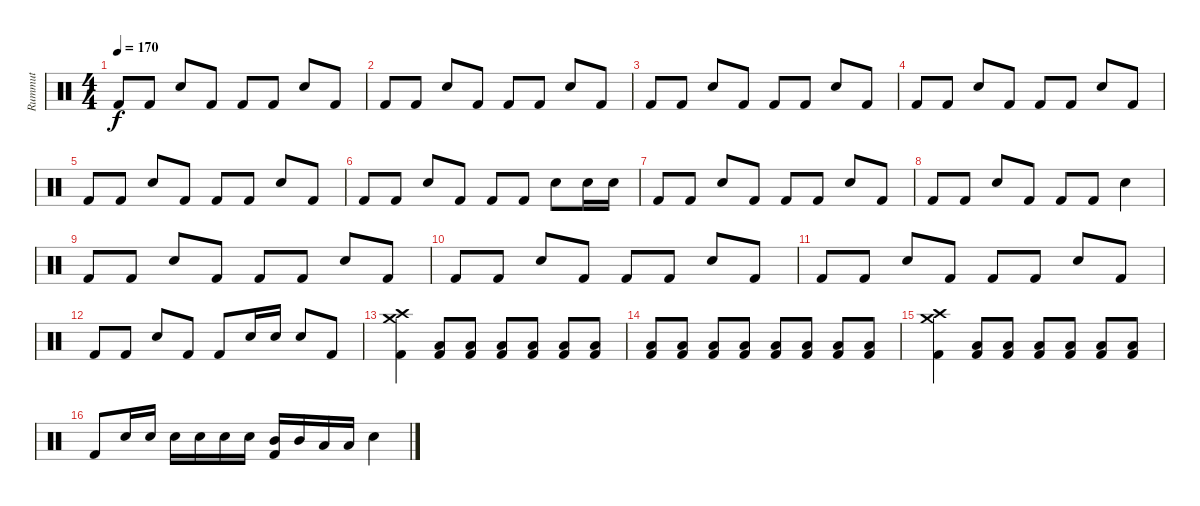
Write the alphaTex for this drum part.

\track ("Rummut" "Rummut") {instrument percussion}
\staff {score}
\articulation defaults
\ts (4 4)
\tempo 170
\clef neutral
\ks c "Kick (hit) 2".8{dy f} "Kick (hit) 2".8 "Electric Snare (hit)".8 "Kick (hit) 2".8 "Kick (hit) 2".8 "Kick (hit) 2".8 "Electric Snare (hit)".8 "Kick (hit) 2".8
|
"Kick (hit) 2".8 "Kick (hit) 2".8 "Electric Snare (hit)".8 "Kick (hit) 2".8 "Kick (hit) 2".8 "Kick (hit) 2".8 "Electric Snare (hit)".8 "Kick (hit) 2".8 |
"Kick (hit) 2".8 "Kick (hit) 2".8 "Electric Snare (hit)".8 "Kick (hit) 2".8 "Kick (hit) 2".8 "Kick (hit) 2".8 "Electric Snare (hit)".8 "Kick (hit) 2".8 |
"Kick (hit) 2".8 "Kick (hit) 2".8 "Electric Snare (hit)".8 "Kick (hit) 2".8 "Kick (hit) 2".8 "Kick (hit) 2".8 "Electric Snare (hit)".8 "Kick (hit) 2".8 |
"Kick (hit) 2".8 "Kick (hit) 2".8 "Electric Snare (hit)".8 "Kick (hit) 2".8 "Kick (hit) 2".8 "Kick (hit) 2".8 "Electric Snare (hit)".8 "Kick (hit) 2".8 |
"Kick (hit) 2".8 "Kick (hit) 2".8 "Electric Snare (hit)".8 "Kick (hit) 2".8 "Kick (hit) 2".8 "Kick (hit) 2".8 "Electric Snare (hit)".8 "Electric Snare (hit)".16 "Electric Snare (hit)".16 |
"Kick (hit) 2".8 "Kick (hit) 2".8 "Electric Snare (hit)".8 "Kick (hit) 2".8 "Kick (hit) 2".8 "Kick (hit) 2".8 "Electric Snare (hit)".8 "Kick (hit) 2".8 |
"Kick (hit) 2".8 "Kick (hit) 2".8 "Electric Snare (hit)".8 "Kick (hit) 2".8 "Kick (hit) 2".8 "Kick (hit) 2".8 "Electric Snare (hit)".4 |
"Kick (hit) 2".8 "Kick (hit) 2".8 "Electric Snare (hit)".8 "Kick (hit) 2".8 "Kick (hit) 2".8 "Kick (hit) 2".8 "Electric Snare (hit)".8 "Kick (hit) 2".8 |
"Kick (hit) 2".8 "Kick (hit) 2".8 "Electric Snare (hit)".8 "Kick (hit) 2".8 "Kick (hit) 2".8 "Kick (hit) 2".8 "Electric Snare (hit)".8 "Kick (hit) 2".8 |
"Kick (hit) 2".8 "Kick (hit) 2".8 "Electric Snare (hit)".8 "Kick (hit) 2".8 "Kick (hit) 2".8 "Kick (hit) 2".8 "Electric Snare (hit)".8 "Kick (hit) 2".8 |
"Kick (hit) 2".8 "Kick (hit) 2".8 "Electric Snare (hit)".8 "Kick (hit) 2".8 "Kick (hit) 2".8 "Electric Snare (hit)".16 "Electric Snare (hit)".16 "Electric Snare (hit)".8 "Kick (hit) 2".8 |
("Crash high (hit)" "Crash medium (hit)" "Kick (hit) 2").4 ("Low Tom (hit)" "Kick (hit) 2").8{volume 11} ("Low Tom (hit)" "Kick (hit) 2").8{volume 15} ("Low Tom (hit)" "Kick (hit) 2").8 ("Low Tom (hit)" "Kick (hit) 2").8 ("Low Tom (hit)" "Kick (hit) 2").8 ("Low Tom (hit)" "Kick (hit) 2").8 |
("Low Tom (hit)" "Kick (hit) 2").8 ("Low Tom (hit)" "Kick (hit) 2").8 ("Low Tom (hit)" "Kick (hit) 2").8 ("Low Tom (hit)" "Kick (hit) 2").8 ("Low Tom (hit)" "Kick (hit) 2").8 ("Low Tom (hit)" "Kick (hit) 2").8 ("Low Tom (hit)" "Kick (hit) 2").8 ("Low Tom (hit)" "Kick (hit) 2").8 |
("Crash high (hit)" "Crash medium (hit)" "Kick (hit) 2").4 ("Low Tom (hit)" "Kick (hit) 2").8 ("Low Tom (hit)" "Kick (hit) 2").8 ("Low Tom (hit)" "Kick (hit) 2").8 ("Low Tom (hit)" "Kick (hit) 2").8 ("Low Tom (hit)" "Kick (hit) 2").8 ("Low Tom (hit)" "Kick (hit) 2").8 |
"Kick (hit) 2".8 "Electric Snare (hit)".16 "Electric Snare (hit)".16 "Electric Snare (hit)".16 "Electric Snare (hit)".16 "Electric Snare (hit)".16 "Electric Snare (hit)".16 ("Mid Tom (hit)" "Kick (hit) 2").16 "Mid Tom (hit)".16 "Low Tom (hit)".16 "Low Tom (hit)".16 "Electric Snare (hit)".4
